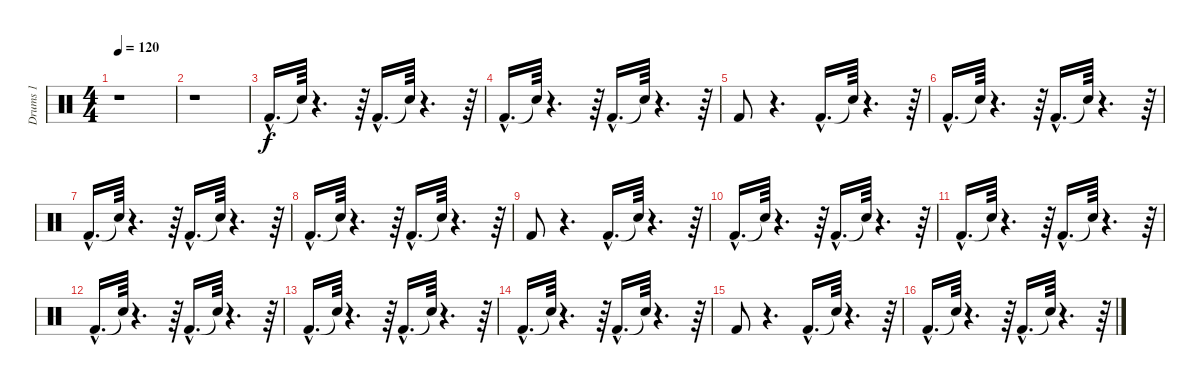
\track ("Drums 1" "Drums 1") {instrument percussion}
\staff {score}
\articulation defaults
\ts (4 4)
\tempo 120
\clef neutral
\ks c
r.1{dy f} |
r.1 |
"Kick (hit) 2"{hac}.16{d} "Snare (hit)"{t}.64 r.4{d} r.64 "Kick (hit) 2"{hac}.16{d} "Snare (hit)"{t}.64 r.4{d} r.64 |
"Kick (hit) 2"{hac}.16{d} "Snare (hit)"{t}.64 r.4{d} r.64 "Kick (hit) 2"{hac}.16{d} "Snare (hit)"{t}.64 r.4{d} r.64 |
"Kick (hit) 2".8 r.4{d} "Kick (hit) 2"{hac}.16{d} "Snare (hit)"{t}.64 r.4{d} r.64 |
"Kick (hit) 2"{hac}.16{d} "Snare (hit)"{t}.64 r.4{d} r.64 "Kick (hit) 2"{hac}.16{d} "Snare (hit)"{t}.64 r.4{d} r.64 |
"Kick (hit) 2"{hac}.16{d} "Snare (hit)"{t}.64 r.4{d} r.64 "Kick (hit) 2"{hac}.16{d} "Snare (hit)"{t}.64 r.4{d} r.64 |
"Kick (hit) 2"{hac}.16{d} "Snare (hit)"{t}.64 r.4{d} r.64 "Kick (hit) 2"{hac}.16{d} "Snare (hit)"{t}.64 r.4{d} r.64 |
"Kick (hit) 2".8 r.4{d} "Kick (hit) 2"{hac}.16{d} "Snare (hit)"{t}.64 r.4{d} r.64 |
"Kick (hit) 2"{hac}.16{d} "Snare (hit)"{t}.64 r.4{d} r.64 "Kick (hit) 2"{hac}.16{d} "Snare (hit)"{t}.64 r.4{d} r.64 |
"Kick (hit) 2"{hac}.16{d} "Snare (hit)"{t}.64 r.4{d} r.64 "Kick (hit) 2"{hac}.16{d} "Snare (hit)"{t}.64 r.4{d} r.64 |
"Kick (hit) 2"{hac}.16{d} "Snare (hit)"{t}.64 r.4{d} r.64 "Kick (hit) 2"{hac}.16{d} "Snare (hit)"{t}.64 r.4{d} r.64 |
"Kick (hit) 2"{hac}.16{d} "Snare (hit)"{t}.64 r.4{d} r.64 "Kick (hit) 2"{hac}.16{d} "Snare (hit)"{t}.64 r.4{d} r.64 |
"Kick (hit) 2"{hac}.16{d} "Snare (hit)"{t}.64 r.4{d} r.64 "Kick (hit) 2"{hac}.16{d} "Snare (hit)"{t}.64 r.4{d} r.64 |
"Kick (hit) 2".8 r.4{d} "Kick (hit) 2"{hac}.16{d} "Snare (hit)"{t}.64 r.4{d} r.64 |
"Kick (hit) 2"{hac}.16{d} "Snare (hit)"{t}.64 r.4{d} r.64 "Kick (hit) 2"{hac}.16{d} "Snare (hit)"{t}.64 r.4{d} r.64
